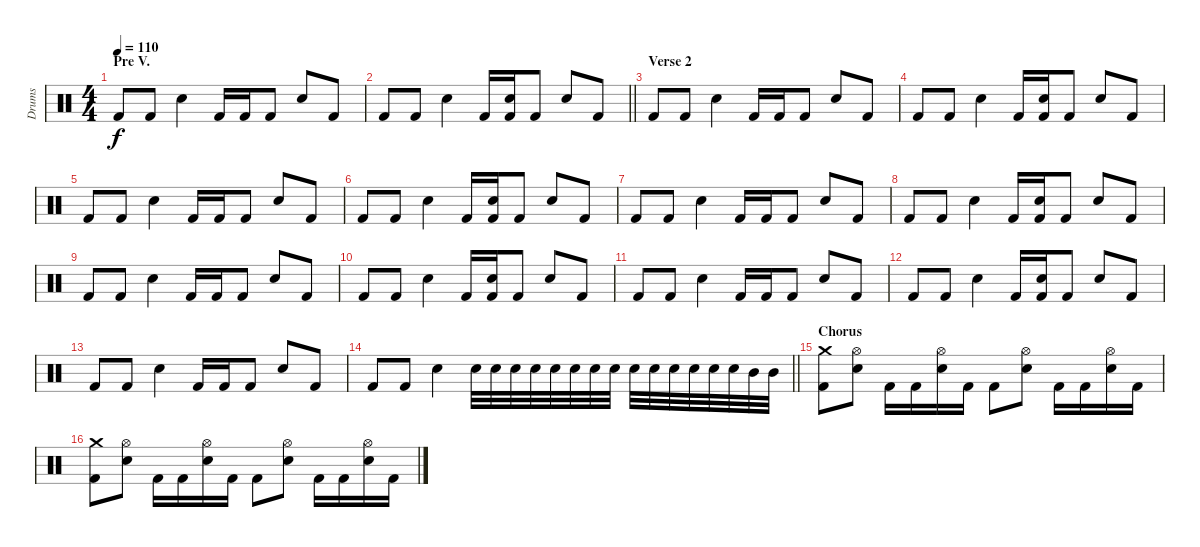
\track ("Drums" "Drums") {instrument percussion}
\staff {score}
\articulation defaults
\ts (4 4)
\section ("" "Pre V.")
\tempo 110
\clef neutral
\ks c "Kick (hit) 2".8{dy f} "Kick (hit) 2".8 "Electric Snare (hit)".4 "Kick (hit) 2".16 "Kick (hit) 2".16 "Kick (hit) 2".8 "Electric Snare (hit)".8 "Kick (hit) 2".8
|
\barLineRight lightlight "Kick (hit) 2".8 "Kick (hit) 2".8 "Electric Snare (hit)".4 "Kick (hit) 2".16
("Electric Snare (hit)" "Kick (hit) 2").16 "Kick (hit) 2".8 "Electric Snare (hit)".8 "Kick (hit) 2".8 |
\section ("" "Verse 2")
"Kick (hit) 2".8 "Kick (hit) 2".8 "Electric Snare (hit)".4 "Kick (hit) 2".16 "Kick (hit) 2".16 "Kick (hit) 2".8 "Electric Snare (hit)".8 "Kick (hit) 2".8 |
"Kick (hit) 2".8 "Kick (hit) 2".8 "Electric Snare (hit)".4 "Kick (hit) 2".16 ("Electric Snare (hit)" "Kick (hit) 2").16 "Kick (hit) 2".8 "Electric Snare (hit)".8 "Kick (hit) 2".8 |
"Kick (hit) 2".8 "Kick (hit) 2".8 "Electric Snare (hit)".4 "Kick (hit) 2".16 "Kick (hit) 2".16 "Kick (hit) 2".8 "Electric Snare (hit)".8 "Kick (hit) 2".8 |
"Kick (hit) 2".8 "Kick (hit) 2".8 "Electric Snare (hit)".4 "Kick (hit) 2".16 ("Electric Snare (hit)" "Kick (hit) 2").16 "Kick (hit) 2".8 "Electric Snare (hit)".8 "Kick (hit) 2".8 |
"Kick (hit) 2".8 "Kick (hit) 2".8 "Electric Snare (hit)".4 "Kick (hit) 2".16 "Kick (hit) 2".16 "Kick (hit) 2".8 "Electric Snare (hit)".8 "Kick (hit) 2".8 |
"Kick (hit) 2".8 "Kick (hit) 2".8 "Electric Snare (hit)".4 "Kick (hit) 2".16 ("Electric Snare (hit)" "Kick (hit) 2").16 "Kick (hit) 2".8 "Electric Snare (hit)".8 "Kick (hit) 2".8 |
"Kick (hit) 2".8 "Kick (hit) 2".8 "Electric Snare (hit)".4 "Kick (hit) 2".16 "Kick (hit) 2".16 "Kick (hit) 2".8 "Electric Snare (hit)".8 "Kick (hit) 2".8 |
"Kick (hit) 2".8 "Kick (hit) 2".8 "Electric Snare (hit)".4 "Kick (hit) 2".16 ("Electric Snare (hit)" "Kick (hit) 2").16 "Kick (hit) 2".8 "Electric Snare (hit)".8 "Kick (hit) 2".8 |
"Kick (hit) 2".8 "Kick (hit) 2".8 "Electric Snare (hit)".4 "Kick (hit) 2".16 "Kick (hit) 2".16 "Kick (hit) 2".8 "Electric Snare (hit)".8 "Kick (hit) 2".8 |
"Kick (hit) 2".8 "Kick (hit) 2".8 "Electric Snare (hit)".4 "Kick (hit) 2".16 ("Electric Snare (hit)" "Kick (hit) 2").16 "Kick (hit) 2".8 "Electric Snare (hit)".8 "Kick (hit) 2".8 |
"Kick (hit) 2".8 "Kick (hit) 2".8 "Electric Snare (hit)".4 "Kick (hit) 2".16 "Kick (hit) 2".16 "Kick (hit) 2".8 "Electric Snare (hit)".8 "Kick (hit) 2".8 |
\barLineRight lightlight "Kick (hit) 2".8 "Kick (hit) 2".8 "Electric Snare (hit)".4 "Electric Snare (hit)".32 "Electric Snare (hit)".32 "Electric Snare (hit)".32 "Electric Snare (hit)".32 "Electric Snare (hit)".32 "Electric Snare (hit)".32 "Electric Snare (hit)".32 "Electric Snare (hit)".32 "Electric Snare (hit)".32 "Electric Snare (hit)".32 "Electric Snare (hit)".32 "Electric Snare (hit)".32 "Electric Snare (hit)".32 "Electric Snare (hit)".32 "Mid Tom (hit)".32 "Mid Tom (hit)".32
|
\section ("" "Chorus")
("Crash medium (hit)" "Kick (hit) 2").8 ("Hi-Hat (open)" "Electric Snare (hit)").8 "Kick (hit) 2".16 "Kick (hit) 2".16 ("Hi-Hat (open)" "Electric Snare (hit)").16 "Kick (hit) 2".16 "Kick (hit) 2".8 ("Hi-Hat (open)" "Electric Snare (hit)").8 "Kick (hit) 2".16 "Kick (hit) 2".16 ("Hi-Hat (open)" "Electric Snare (hit)").16 "Kick (hit) 2".16 |
("Crash medium (hit)" "Kick (hit) 2").8 ("Hi-Hat (open)" "Electric Snare (hit)").8 "Kick (hit) 2".16 "Kick (hit) 2".16 ("Hi-Hat (open)" "Electric Snare (hit)").16 "Kick (hit) 2".16 "Kick (hit) 2".8 ("Hi-Hat (open)" "Electric Snare (hit)").8 "Kick (hit) 2".16 "Kick (hit) 2".16 ("Hi-Hat (open)" "Electric Snare (hit)").16 "Kick (hit) 2".16
